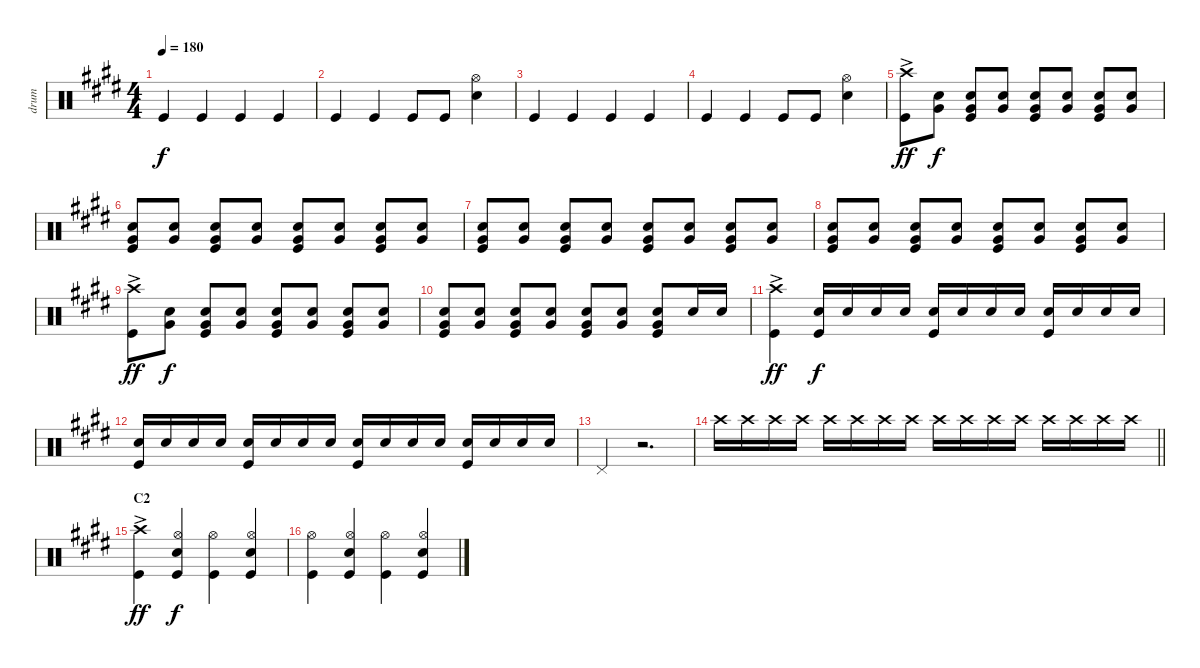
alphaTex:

\track ("drum" "drum") {instrument percussion}
\staff {score}
\articulation defaults
\ts (4 4)
\tempo 180
\clef neutral
\ks e "Kick (hit)".4{dy f} "Kick (hit)".4 "Kick (hit)".4 "Kick (hit)".4
|
"Kick (hit)".4 "Kick (hit)".4 "Kick (hit)".8 "Kick (hit)".8 ("Hi-Hat (open)" "Snare (hit) 2").4 |
"Kick (hit)".4 "Kick (hit)".4 "Kick (hit)".4 "Kick (hit)".4 |
"Kick (hit)".4 "Kick (hit)".4 "Kick (hit)".8 "Kick (hit)".8 ("Hi-Hat (open)" "Snare (hit) 2").4 |
("Crash high (hit)"{ac} "Kick (hit)").8{dy ff} ("Snare (hit) 2" "Very Low Tom (hit)").8{dy f volume 8} ("Snare (hit) 2" "Very Low Tom (hit)" "Kick (hit)").8{volume 15} ("Snare (hit) 2" "Very Low Tom (hit)").8 ("Snare (hit) 2" "Very Low Tom (hit)" "Kick (hit)").8 ("Snare (hit) 2" "Very Low Tom (hit)").8 ("Snare (hit) 2" "Very Low Tom (hit)" "Kick (hit)").8 ("Snare (hit) 2" "Very Low Tom (hit)").8 |
("Snare (hit) 2" "Very Low Tom (hit)" "Kick (hit)").8 ("Snare (hit) 2" "Very Low Tom (hit)").8 ("Snare (hit) 2" "Very Low Tom (hit)" "Kick (hit)").8 ("Snare (hit) 2" "Very Low Tom (hit)").8 ("Snare (hit) 2" "Very Low Tom (hit)" "Kick (hit)").8 ("Snare (hit) 2" "Very Low Tom (hit)").8 ("Snare (hit) 2" "Very Low Tom (hit)" "Kick (hit)").8 ("Snare (hit) 2" "Very Low Tom (hit)").8 |
("Snare (hit) 2" "Very Low Tom (hit)" "Kick (hit)").8 ("Snare (hit) 2" "Very Low Tom (hit)").8 ("Snare (hit) 2" "Very Low Tom (hit)" "Kick (hit)").8 ("Snare (hit) 2" "Very Low Tom (hit)").8 ("Snare (hit) 2" "Very Low Tom (hit)" "Kick (hit)").8 ("Snare (hit) 2" "Very Low Tom (hit)").8 ("Snare (hit) 2" "Very Low Tom (hit)" "Kick (hit)").8 ("Snare (hit) 2" "Very Low Tom (hit)").8 |
("Snare (hit) 2" "Very Low Tom (hit)" "Kick (hit)").8 ("Snare (hit) 2" "Very Low Tom (hit)").8 ("Snare (hit) 2" "Very Low Tom (hit)" "Kick (hit)").8 ("Snare (hit) 2" "Very Low Tom (hit)").8 ("Snare (hit) 2" "Very Low Tom (hit)" "Kick (hit)").8 ("Snare (hit) 2" "Very Low Tom (hit)").8 ("Snare (hit) 2" "Very Low Tom (hit)" "Kick (hit)").8 ("Snare (hit) 2" "Very Low Tom (hit)").8 |
("Crash high (hit)"{ac} "Kick (hit)").8{dy ff} ("Snare (hit) 2" "Very Low Tom (hit)").8{dy f volume 8} ("Snare (hit) 2" "Very Low Tom (hit)" "Kick (hit)").8{volume 15} ("Snare (hit) 2" "Very Low Tom (hit)").8 ("Snare (hit) 2" "Very Low Tom (hit)" "Kick (hit)").8 ("Snare (hit) 2" "Very Low Tom (hit)").8 ("Snare (hit) 2" "Very Low Tom (hit)" "Kick (hit)").8 ("Snare (hit) 2" "Very Low Tom (hit)").8 |
("Snare (hit) 2" "Very Low Tom (hit)" "Kick (hit)").8 ("Snare (hit) 2" "Very Low Tom (hit)").8 ("Snare (hit) 2" "Very Low Tom (hit)" "Kick (hit)").8 ("Snare (hit) 2" "Very Low Tom (hit)").8 ("Snare (hit) 2" "Very Low Tom (hit)" "Kick (hit)").8 ("Snare (hit) 2" "Very Low Tom (hit)").8 ("Snare (hit) 2" "Very Low Tom (hit)" "Kick (hit)").8 "Snare (hit) 2".16 "Snare (hit) 2".16 |
("Crash high (hit)"{ac} "Kick (hit)").4{dy ff} ("Snare (hit) 2" "Kick (hit)").16{dy f volume 8} "Snare (hit) 2".16{volume 15} "Snare (hit) 2".16 "Snare (hit) 2".16 ("Snare (hit) 2" "Kick (hit)").16 "Snare (hit) 2".16 "Snare (hit) 2".16 "Snare (hit) 2".16 ("Snare (hit) 2" "Kick (hit)").16 "Snare (hit) 2".16 "Snare (hit) 2".16 "Snare (hit) 2".16 |
("Snare (hit) 2" "Kick (hit)").16 "Snare (hit) 2".16 "Snare (hit) 2".16 "Snare (hit) 2".16 ("Snare (hit) 2" "Kick (hit)").16 "Snare (hit) 2".16 "Snare (hit) 2".16 "Snare (hit) 2".16 ("Snare (hit) 2" "Kick (hit)").16 "Snare (hit) 2".16 "Snare (hit) 2".16 "Snare (hit) 2".16 ("Snare (hit) 2" "Kick (hit)").16 "Snare (hit) 2".16 "Snare (hit) 2".16 "Snare (hit) 2".16 |
"Pedal Hi-Hat (hit)".4 r.2{d volume 8} |
\barLineRight lightlight "Crash high (hit)".16{volume 15} "Crash high (hit)".16 "Crash high (hit)".16 "Crash high (hit)".16 "Crash high (hit)".16 "Crash high (hit)".16 "Crash high (hit)".16 "Crash high (hit)".16 "Crash high (hit)".16 "Crash high (hit)".16 "Crash high (hit)".16 "Crash high (hit)".16 "Crash high (hit)".16 "Crash high (hit)".16 "Crash high (hit)".16 "Crash high (hit)".16
|
\section ("" "C2")
("Crash high (hit)"{ac} "Kick (hit)").4{dy ff} ("Hi-Hat (open)" "Snare (hit) 2" "Kick (hit)").4{dy f} ("Hi-Hat (open)" "Kick (hit)").4 ("Hi-Hat (open)" "Snare (hit) 2" "Kick (hit)").4 |
("Hi-Hat (open)" "Kick (hit)").4 ("Hi-Hat (open)" "Snare (hit) 2" "Kick (hit)").4 ("Hi-Hat (open)" "Kick (hit)").4 ("Hi-Hat (open)" "Snare (hit) 2" "Kick (hit)").4
